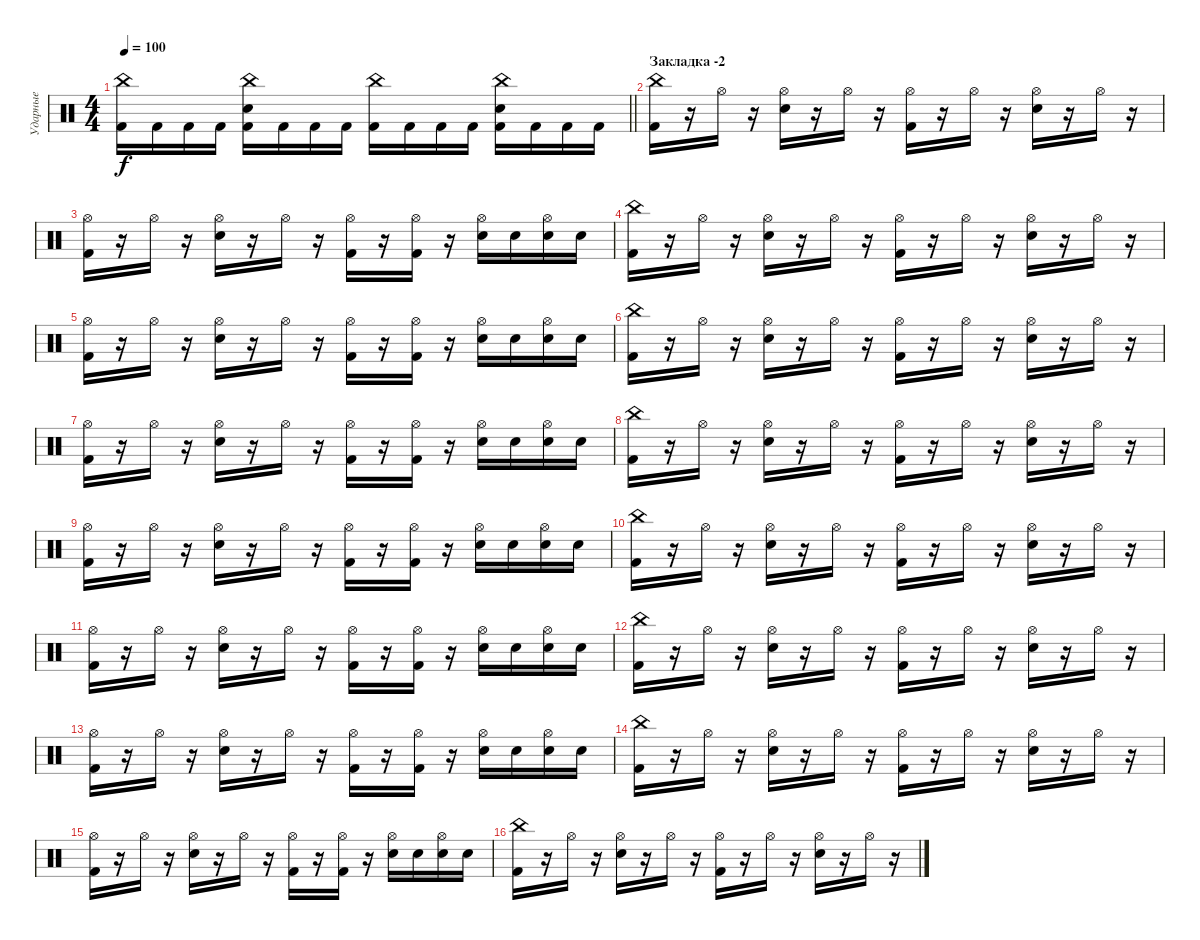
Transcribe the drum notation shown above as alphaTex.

\track ("Ударные" "Ударные") {instrument percussion}
\staff {score}
\articulation defaults
\ts (4 4)
\tempo 100
\clef neutral
\barLineRight lightlight
\ks c
("China (hit)" "Kick (hit) 2").16{dy f} "Kick (hit) 2".16 "Kick (hit) 2".16 "Kick (hit) 2".16 ("China (hit)" "Electric Snare (hit)" "Kick (hit) 2").16 "Kick (hit) 2".16 "Kick (hit) 2".16 "Kick (hit) 2".16 ("China (hit)" "Kick (hit) 2").16 "Kick (hit) 2".16 "Kick (hit) 2".16 "Kick (hit) 2".16 ("China (hit)" "Electric Snare (hit)" "Kick (hit) 2").16 "Kick (hit) 2".16 "Kick (hit) 2".16 "Kick (hit) 2".16 |
\section ("" "Закладка -2")
("China (hit)" "Kick (hit) 2").16 r.16 "Hi-Hat (open)".16 r.16 ("Hi-Hat (open)" "Electric Snare (hit)").16 r.16 "Hi-Hat (open)".16 r.16 ("Hi-Hat (open)" "Kick (hit) 2").16 r.16 "Hi-Hat (open)".16 r.16 ("Hi-Hat (open)" "Electric Snare (hit)").16 r.16 "Hi-Hat (open)".16 r.16 |
("Hi-Hat (open)" "Kick (hit) 2").16 r.16 "Hi-Hat (open)".16 r.16 ("Hi-Hat (open)" "Electric Snare (hit)").16 r.16 "Hi-Hat (open)".16 r.16 ("Hi-Hat (open)" "Kick (hit) 2").16 r.16 ("Hi-Hat (open)" "Kick (hit) 2").16 r.16 ("Hi-Hat (open)" "Electric Snare (hit)").16 "Electric Snare (hit)".16 ("Hi-Hat (open)" "Electric Snare (hit)").16 "Electric Snare (hit)".16 |
("China (hit)" "Kick (hit) 2").16 r.16 "Hi-Hat (open)".16 r.16 ("Hi-Hat (open)" "Electric Snare (hit)").16 r.16 "Hi-Hat (open)".16 r.16 ("Hi-Hat (open)" "Kick (hit) 2").16 r.16 "Hi-Hat (open)".16 r.16 ("Hi-Hat (open)" "Electric Snare (hit)").16 r.16 "Hi-Hat (open)".16 r.16 |
("Hi-Hat (open)" "Kick (hit) 2").16 r.16 "Hi-Hat (open)".16 r.16 ("Hi-Hat (open)" "Electric Snare (hit)").16 r.16 "Hi-Hat (open)".16 r.16 ("Hi-Hat (open)" "Kick (hit) 2").16 r.16 ("Hi-Hat (open)" "Kick (hit) 2").16 r.16 ("Hi-Hat (open)" "Electric Snare (hit)").16 "Electric Snare (hit)".16 ("Hi-Hat (open)" "Electric Snare (hit)").16 "Electric Snare (hit)".16 |
("China (hit)" "Kick (hit) 2").16 r.16 "Hi-Hat (open)".16 r.16 ("Hi-Hat (open)" "Electric Snare (hit)").16 r.16 "Hi-Hat (open)".16 r.16 ("Hi-Hat (open)" "Kick (hit) 2").16 r.16 "Hi-Hat (open)".16 r.16 ("Hi-Hat (open)" "Electric Snare (hit)").16 r.16 "Hi-Hat (open)".16 r.16 |
("Hi-Hat (open)" "Kick (hit) 2").16 r.16 "Hi-Hat (open)".16 r.16 ("Hi-Hat (open)" "Electric Snare (hit)").16 r.16 "Hi-Hat (open)".16 r.16 ("Hi-Hat (open)" "Kick (hit) 2").16 r.16 ("Hi-Hat (open)" "Kick (hit) 2").16 r.16 ("Hi-Hat (open)" "Electric Snare (hit)").16 "Electric Snare (hit)".16 ("Hi-Hat (open)" "Electric Snare (hit)").16 "Electric Snare (hit)".16 |
("China (hit)" "Kick (hit) 2").16 r.16 "Hi-Hat (open)".16 r.16 ("Hi-Hat (open)" "Electric Snare (hit)").16 r.16 "Hi-Hat (open)".16 r.16 ("Hi-Hat (open)" "Kick (hit) 2").16 r.16 "Hi-Hat (open)".16 r.16 ("Hi-Hat (open)" "Electric Snare (hit)").16 r.16 "Hi-Hat (open)".16 r.16 |
("Hi-Hat (open)" "Kick (hit) 2").16 r.16 "Hi-Hat (open)".16 r.16 ("Hi-Hat (open)" "Electric Snare (hit)").16 r.16 "Hi-Hat (open)".16 r.16 ("Hi-Hat (open)" "Kick (hit) 2").16 r.16 ("Hi-Hat (open)" "Kick (hit) 2").16 r.16 ("Hi-Hat (open)" "Electric Snare (hit)").16 "Electric Snare (hit)".16 ("Hi-Hat (open)" "Electric Snare (hit)").16 "Electric Snare (hit)".16 |
("China (hit)" "Kick (hit) 2").16 r.16 "Hi-Hat (open)".16 r.16 ("Hi-Hat (open)" "Electric Snare (hit)").16 r.16 "Hi-Hat (open)".16 r.16 ("Hi-Hat (open)" "Kick (hit) 2").16 r.16 "Hi-Hat (open)".16 r.16 ("Hi-Hat (open)" "Electric Snare (hit)").16 r.16 "Hi-Hat (open)".16 r.16 |
("Hi-Hat (open)" "Kick (hit) 2").16 r.16 "Hi-Hat (open)".16 r.16 ("Hi-Hat (open)" "Electric Snare (hit)").16 r.16 "Hi-Hat (open)".16 r.16 ("Hi-Hat (open)" "Kick (hit) 2").16 r.16 ("Hi-Hat (open)" "Kick (hit) 2").16 r.16 ("Hi-Hat (open)" "Electric Snare (hit)").16 "Electric Snare (hit)".16 ("Hi-Hat (open)" "Electric Snare (hit)").16 "Electric Snare (hit)".16 |
("China (hit)" "Kick (hit) 2").16 r.16 "Hi-Hat (open)".16 r.16 ("Hi-Hat (open)" "Electric Snare (hit)").16 r.16 "Hi-Hat (open)".16 r.16 ("Hi-Hat (open)" "Kick (hit) 2").16 r.16 "Hi-Hat (open)".16 r.16 ("Hi-Hat (open)" "Electric Snare (hit)").16 r.16 "Hi-Hat (open)".16 r.16 |
("Hi-Hat (open)" "Kick (hit) 2").16 r.16 "Hi-Hat (open)".16 r.16 ("Hi-Hat (open)" "Electric Snare (hit)").16 r.16 "Hi-Hat (open)".16 r.16 ("Hi-Hat (open)" "Kick (hit) 2").16 r.16 ("Hi-Hat (open)" "Kick (hit) 2").16 r.16 ("Hi-Hat (open)" "Electric Snare (hit)").16 "Electric Snare (hit)".16 ("Hi-Hat (open)" "Electric Snare (hit)").16 "Electric Snare (hit)".16 |
("China (hit)" "Kick (hit) 2").16 r.16 "Hi-Hat (open)".16 r.16 ("Hi-Hat (open)" "Electric Snare (hit)").16 r.16 "Hi-Hat (open)".16 r.16 ("Hi-Hat (open)" "Kick (hit) 2").16 r.16 "Hi-Hat (open)".16 r.16 ("Hi-Hat (open)" "Electric Snare (hit)").16 r.16 "Hi-Hat (open)".16 r.16 |
("Hi-Hat (open)" "Kick (hit) 2").16 r.16 "Hi-Hat (open)".16 r.16 ("Hi-Hat (open)" "Electric Snare (hit)").16 r.16 "Hi-Hat (open)".16 r.16 ("Hi-Hat (open)" "Kick (hit) 2").16 r.16 ("Hi-Hat (open)" "Kick (hit) 2").16 r.16 ("Hi-Hat (open)" "Electric Snare (hit)").16 "Electric Snare (hit)".16 ("Hi-Hat (open)" "Electric Snare (hit)").16 "Electric Snare (hit)".16 |
("China (hit)" "Kick (hit) 2").16 r.16 "Hi-Hat (open)".16 r.16 ("Hi-Hat (open)" "Electric Snare (hit)").16 r.16 "Hi-Hat (open)".16 r.16 ("Hi-Hat (open)" "Kick (hit) 2").16 r.16 "Hi-Hat (open)".16 r.16 ("Hi-Hat (open)" "Electric Snare (hit)").16 r.16 "Hi-Hat (open)".16 r.16
